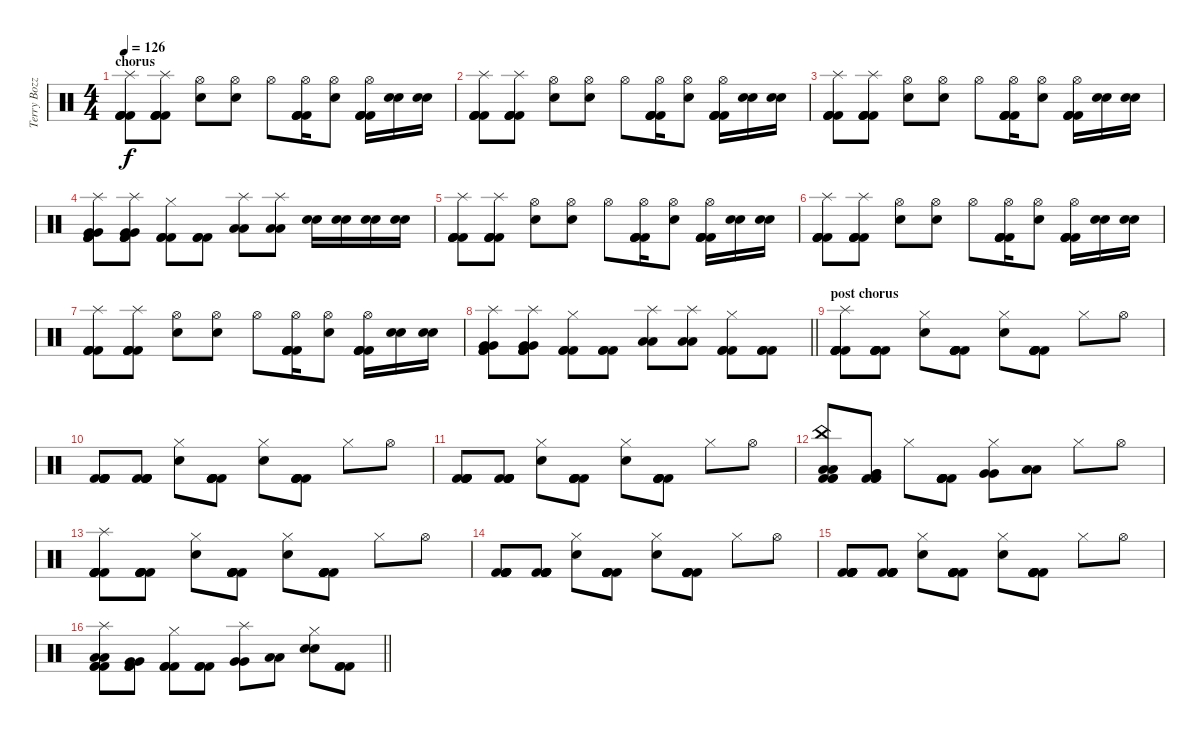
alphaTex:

\track ("Terry Bozzio" "Terry Bozz") {instrument percussion}
\staff {score}
\articulation defaults
\ts (4 4)
\section ("" "chorus")
\tempo 126
\clef neutral
\ks c
("Splash (hit)" "Kick (hit) 2" "Kick (hit) 2" "Kick (hit) 2" "Kick (hit) 2").8{dy f} ("Splash (hit)" "Kick (hit) 2" "Kick (hit) 2" "Kick (hit) 2" "Kick (hit) 2").8 ("Hi-Hat (open)" "Snare (hit) 2").8 ("Hi-Hat (open)" "Snare (hit) 2").8 "Hi-Hat (open)".8 ("Hi-Hat (open)" "Kick (hit) 2" "Kick (hit) 2" "Kick (hit) 2" "Kick (hit) 2").16 ("Hi-Hat (open)" "Snare (hit) 2").8 ("Hi-Hat (open)" "Kick (hit) 2" "Kick (hit) 2" "Kick (hit) 2" "Kick (hit) 2").16 ("Snare (hit) 2" "Snare (hit) 2").16 ("Snare (hit) 2" "Snare (hit) 2").16 |
("Splash (hit)" "Kick (hit) 2" "Kick (hit) 2" "Kick (hit) 2" "Kick (hit) 2").8 ("Splash (hit)" "Kick (hit) 2" "Kick (hit) 2" "Kick (hit) 2" "Kick (hit) 2").8 ("Hi-Hat (open)" "Snare (hit) 2").8 ("Hi-Hat (open)" "Snare (hit) 2").8 "Hi-Hat (open)".8 ("Hi-Hat (open)" "Kick (hit) 2" "Kick (hit) 2" "Kick (hit) 2" "Kick (hit) 2").16 ("Hi-Hat (open)" "Snare (hit) 2").8 ("Hi-Hat (open)" "Kick (hit) 2" "Kick (hit) 2" "Kick (hit) 2" "Kick (hit) 2").16 ("Snare (hit) 2" "Snare (hit) 2").16 ("Snare (hit) 2" "Snare (hit) 2").16 |
("Splash (hit)" "Kick (hit) 2" "Kick (hit) 2" "Kick (hit) 2" "Kick (hit) 2").8 ("Splash (hit)" "Kick (hit) 2" "Kick (hit) 2" "Kick (hit) 2" "Kick (hit) 2").8 ("Hi-Hat (open)" "Snare (hit) 2").8 ("Hi-Hat (open)" "Snare (hit) 2").8 "Hi-Hat (open)".8 ("Hi-Hat (open)" "Kick (hit) 2" "Kick (hit) 2" "Kick (hit) 2" "Kick (hit) 2").16 ("Hi-Hat (open)" "Snare (hit) 2").8 ("Hi-Hat (open)" "Kick (hit) 2" "Kick (hit) 2" "Kick (hit) 2" "Kick (hit) 2").16 ("Snare (hit) 2" "Snare (hit) 2").16 ("Snare (hit) 2" "Snare (hit) 2").16 |
("Splash (hit)" "Very Low Tom (hit)" "Very Low Tom (hit)" "Kick (hit) 2" "Kick (hit) 2" "Kick (hit) 2").8 ("Splash (hit)" "Very Low Tom (hit)" "Very Low Tom (hit)" "Kick (hit) 2" "Kick (hit) 2" "Kick (hit) 2").8 ("Hi-Hat (closed)" "Kick (hit) 2" "Kick (hit) 2" "Kick (hit) 2").8 ("Kick (hit) 2" "Kick (hit) 2" "Kick (hit) 2").8 ("Splash (hit)" "Low Floor Tom (hit)" "Low Floor Tom (hit)").8 ("Splash (hit)" "Low Floor Tom (hit)" "Low Floor Tom (hit)").8 ("Snare (hit) 2" "Snare (hit) 2").16 ("Snare (hit) 2" "Snare (hit) 2").16 ("Snare (hit) 2" "Snare (hit) 2").16 ("Snare (hit) 2" "Snare (hit) 2").16 |
("Splash (hit)" "Kick (hit) 2" "Kick (hit) 2" "Kick (hit) 2" "Kick (hit) 2").8 ("Splash (hit)" "Kick (hit) 2" "Kick (hit) 2" "Kick (hit) 2" "Kick (hit) 2").8 ("Hi-Hat (open)" "Snare (hit) 2").8 ("Hi-Hat (open)" "Snare (hit) 2").8 "Hi-Hat (open)".8 ("Hi-Hat (open)" "Kick (hit) 2" "Kick (hit) 2" "Kick (hit) 2" "Kick (hit) 2").16 ("Hi-Hat (open)" "Snare (hit) 2").8 ("Hi-Hat (open)" "Kick (hit) 2" "Kick (hit) 2" "Kick (hit) 2" "Kick (hit) 2").16 ("Snare (hit) 2" "Snare (hit) 2").16 ("Snare (hit) 2" "Snare (hit) 2").16 |
("Splash (hit)" "Kick (hit) 2" "Kick (hit) 2" "Kick (hit) 2" "Kick (hit) 2").8 ("Splash (hit)" "Kick (hit) 2" "Kick (hit) 2" "Kick (hit) 2" "Kick (hit) 2").8 ("Hi-Hat (open)" "Snare (hit) 2").8 ("Hi-Hat (open)" "Snare (hit) 2").8 "Hi-Hat (open)".8 ("Hi-Hat (open)" "Kick (hit) 2" "Kick (hit) 2" "Kick (hit) 2" "Kick (hit) 2").16 ("Hi-Hat (open)" "Snare (hit) 2").8 ("Hi-Hat (open)" "Kick (hit) 2" "Kick (hit) 2" "Kick (hit) 2" "Kick (hit) 2").16 ("Snare (hit) 2" "Snare (hit) 2").16 ("Snare (hit) 2" "Snare (hit) 2").16 |
("Splash (hit)" "Kick (hit) 2" "Kick (hit) 2" "Kick (hit) 2" "Kick (hit) 2").8 ("Splash (hit)" "Kick (hit) 2" "Kick (hit) 2" "Kick (hit) 2" "Kick (hit) 2").8 ("Hi-Hat (open)" "Snare (hit) 2").8 ("Hi-Hat (open)" "Snare (hit) 2").8 "Hi-Hat (open)".8 ("Hi-Hat (open)" "Kick (hit) 2" "Kick (hit) 2" "Kick (hit) 2" "Kick (hit) 2").16 ("Hi-Hat (open)" "Snare (hit) 2").8 ("Hi-Hat (open)" "Kick (hit) 2" "Kick (hit) 2" "Kick (hit) 2" "Kick (hit) 2").16 ("Snare (hit) 2" "Snare (hit) 2").16 ("Snare (hit) 2" "Snare (hit) 2").16 |
\barLineRight lightlight
("Splash (hit)" "Very Low Tom (hit)" "Very Low Tom (hit)" "Kick (hit) 2" "Kick (hit) 2" "Kick (hit) 2").8 ("Splash (hit)" "Very Low Tom (hit)" "Very Low Tom (hit)" "Kick (hit) 2" "Kick (hit) 2" "Kick (hit) 2").8 ("Hi-Hat (closed)" "Kick (hit) 2" "Kick (hit) 2" "Kick (hit) 2").8 ("Kick (hit) 2" "Kick (hit) 2" "Kick (hit) 2").8 ("Splash (hit)" "Low Floor Tom (hit)" "Low Floor Tom (hit)").8 ("Splash (hit)" "Low Floor Tom (hit)" "Low Floor Tom (hit)").8 ("Hi-Hat (closed)" "Kick (hit) 2" "Kick (hit) 2" "Kick (hit) 2").8 ("Kick (hit) 2" "Kick (hit) 2" "Kick (hit) 2").8 |
\section ("" "post chorus")
("Splash (hit)" "Kick (hit) 2" "Kick (hit) 2" "Kick (hit) 2" "Kick (hit) 2" "Kick (hit) 2").8 ("Kick (hit) 2" "Kick (hit) 2" "Kick (hit) 2" "Kick (hit) 2" "Kick (hit) 2").8 ("Hi-Hat (closed)" "Snare (hit) 2").8 ("Kick (hit) 2" "Kick (hit) 2" "Kick (hit) 2" "Kick (hit) 2" "Kick (hit) 2").8 ("Hi-Hat (closed)" "Snare (hit) 2").8 ("Kick (hit) 2" "Kick (hit) 2" "Kick (hit) 2" "Kick (hit) 2" "Kick (hit) 2").8 "Hi-Hat (closed)".8 "Hi-Hat (open)".8 |
("Kick (hit) 2" "Kick (hit) 2" "Kick (hit) 2" "Kick (hit) 2" "Kick (hit) 2").8 ("Kick (hit) 2" "Kick (hit) 2" "Kick (hit) 2" "Kick (hit) 2" "Kick (hit) 2").8 ("Hi-Hat (closed)" "Snare (hit) 2").8 ("Kick (hit) 2" "Kick (hit) 2" "Kick (hit) 2" "Kick (hit) 2" "Kick (hit) 2").8 ("Hi-Hat (closed)" "Snare (hit) 2").8 ("Kick (hit) 2" "Kick (hit) 2" "Kick (hit) 2" "Kick (hit) 2" "Kick (hit) 2").8 "Hi-Hat (closed)".8 "Hi-Hat (open)".8 |
("Kick (hit) 2" "Kick (hit) 2" "Kick (hit) 2" "Kick (hit) 2" "Kick (hit) 2").8 ("Kick (hit) 2" "Kick (hit) 2" "Kick (hit) 2" "Kick (hit) 2" "Kick (hit) 2").8 ("Hi-Hat (closed)" "Snare (hit) 2").8 ("Kick (hit) 2" "Kick (hit) 2" "Kick (hit) 2" "Kick (hit) 2" "Kick (hit) 2").8 ("Hi-Hat (closed)" "Snare (hit) 2").8 ("Kick (hit) 2" "Kick (hit) 2" "Kick (hit) 2" "Kick (hit) 2" "Kick (hit) 2").8 "Hi-Hat (closed)".8 "Hi-Hat (open)".8 |
("China (hit)" "Low Tom (hit)" "Low Tom (hit)" "Kick (hit) 2" "Kick (hit) 2" "Kick (hit) 2").8 ("Very Low Tom (hit)" "Very Low Tom (hit)" "Kick (hit) 2" "Kick (hit) 2" "Kick (hit) 2").8 "Hi-Hat (closed)".8 ("Kick (hit) 2" "Kick (hit) 2" "Kick (hit) 2" "Kick (hit) 2" "Kick (hit) 2").8 ("Hi-Hat (closed)" "Very Low Tom (hit)" "Very Low Tom (hit)").8 ("Low Floor Tom (hit)" "Low Floor Tom (hit)").8 "Hi-Hat (closed)".8 "Hi-Hat (open)".8 |
("Splash (hit)" "Kick (hit) 2" "Kick (hit) 2" "Kick (hit) 2" "Kick (hit) 2" "Kick (hit) 2").8 ("Kick (hit) 2" "Kick (hit) 2" "Kick (hit) 2" "Kick (hit) 2" "Kick (hit) 2").8 ("Hi-Hat (closed)" "Snare (hit) 2").8 ("Kick (hit) 2" "Kick (hit) 2" "Kick (hit) 2" "Kick (hit) 2" "Kick (hit) 2").8 ("Hi-Hat (closed)" "Snare (hit) 2").8 ("Kick (hit) 2" "Kick (hit) 2" "Kick (hit) 2" "Kick (hit) 2" "Kick (hit) 2").8 "Hi-Hat (closed)".8 "Hi-Hat (open)".8 |
("Kick (hit) 2" "Kick (hit) 2" "Kick (hit) 2" "Kick (hit) 2" "Kick (hit) 2").8 ("Kick (hit) 2" "Kick (hit) 2" "Kick (hit) 2" "Kick (hit) 2" "Kick (hit) 2").8 ("Hi-Hat (closed)" "Snare (hit) 2").8 ("Kick (hit) 2" "Kick (hit) 2" "Kick (hit) 2" "Kick (hit) 2" "Kick (hit) 2").8 ("Hi-Hat (closed)" "Snare (hit) 2").8 ("Kick (hit) 2" "Kick (hit) 2" "Kick (hit) 2" "Kick (hit) 2" "Kick (hit) 2").8 "Hi-Hat (closed)".8 "Hi-Hat (open)".8 |
("Kick (hit) 2" "Kick (hit) 2" "Kick (hit) 2" "Kick (hit) 2" "Kick (hit) 2").8 ("Kick (hit) 2" "Kick (hit) 2" "Kick (hit) 2" "Kick (hit) 2" "Kick (hit) 2").8 ("Hi-Hat (closed)" "Snare (hit) 2").8 ("Kick (hit) 2" "Kick (hit) 2" "Kick (hit) 2" "Kick (hit) 2" "Kick (hit) 2").8 ("Hi-Hat (closed)" "Snare (hit) 2").8 ("Kick (hit) 2" "Kick (hit) 2" "Kick (hit) 2" "Kick (hit) 2" "Kick (hit) 2").8 "Hi-Hat (closed)".8 "Hi-Hat (open)".8 |
\barLineRight lightlight
("Splash (hit)" "Low Tom (hit)" "Low Tom (hit)" "Kick (hit) 2" "Kick (hit) 2" "Kick (hit) 2").8 ("Very Low Tom (hit)" "Very Low Tom (hit)" "Kick (hit) 2" "Kick (hit) 2" "Kick (hit) 2").8 ("Hi-Hat (closed)" "Kick (hit) 2" "Kick (hit) 2" "Kick (hit) 2").8 ("Kick (hit) 2" "Kick (hit) 2" "Kick (hit) 2").8 ("Splash (hit)" "Very Low Tom (hit)" "Very Low Tom (hit)").8 ("Low Floor Tom (hit)" "Low Floor Tom (hit)").8 ("Hi-Hat (closed)" "Snare (hit) 2" "Snare (hit) 2").8 ("Kick (hit) 2" "Kick (hit) 2" "Kick (hit) 2").8
